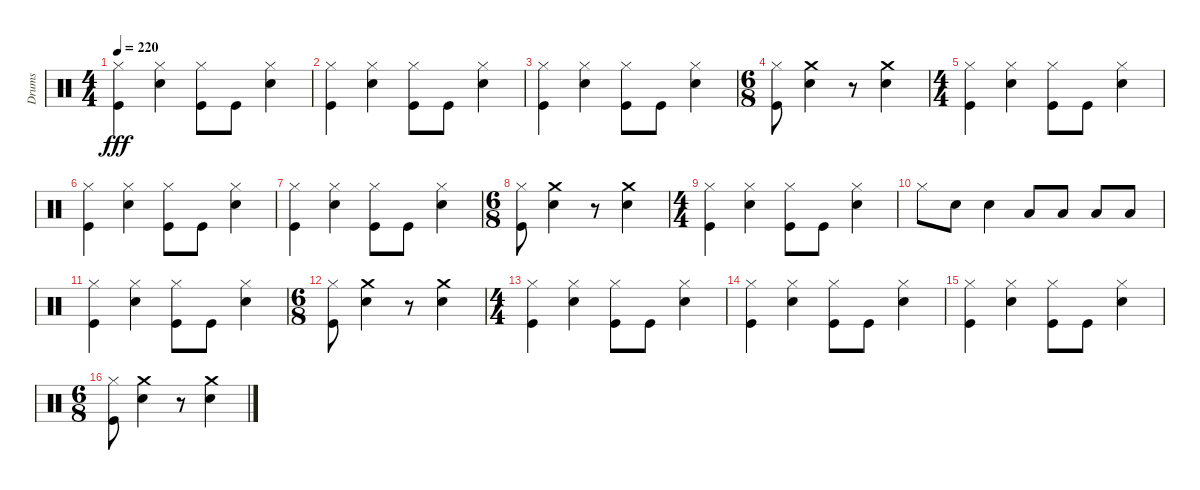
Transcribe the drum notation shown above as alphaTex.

\track ("Drums" "Drums") {instrument percussion}
\staff {score}
\articulation defaults
\ts (4 4)
\tempo 220
\clef neutral
\ks c
("Kick (hit)" "Hi-Hat (closed)").4{dy fff} ("Hi-Hat (closed)" "Snare (hit) 2").4 ("Kick (hit)" "Hi-Hat (closed)").8 "Kick (hit)".8 ("Snare (hit) 2" "Hi-Hat (closed)").4 |
("Kick (hit)" "Hi-Hat (closed)").4 ("Snare (hit) 2" "Hi-Hat (closed)").4 ("Kick (hit)" "Hi-Hat (closed)").8 "Kick (hit)".8 ("Snare (hit) 2" "Hi-Hat (closed)").4 |
("Kick (hit)" "Hi-Hat (closed)").4 ("Snare (hit) 2" "Hi-Hat (closed)").4 ("Kick (hit)" "Hi-Hat (closed)").8 "Kick (hit)".8 ("Snare (hit) 2" "Hi-Hat (closed)").4 |
\ts (6 8)
("Hi-Hat (closed)" "Kick (hit)").8 ("Snare (hit) 2" "Crash medium (hit)").4 r.8 ("Snare (hit) 2" "Crash medium (hit)").4 |
\ts (4 4)
("Kick (hit)" "Hi-Hat (closed)").4 ("Snare (hit) 2" "Hi-Hat (closed)").4 ("Kick (hit)" "Hi-Hat (closed)").8 "Kick (hit)".8 ("Snare (hit) 2" "Hi-Hat (closed)").4 |
("Hi-Hat (closed)" "Kick (hit)").4 ("Snare (hit) 2" "Hi-Hat (closed)").4 ("Kick (hit)" "Hi-Hat (closed)").8 "Kick (hit)".8 ("Snare (hit) 2" "Hi-Hat (closed)").4 |
("Kick (hit)" "Hi-Hat (closed)").4 ("Snare (hit) 2" "Hi-Hat (closed)").4 ("Hi-Hat (closed)" "Kick (hit)").8 "Kick (hit)".8 ("Snare (hit) 2" "Hi-Hat (closed)").4 |
\ts (6 8)
("Hi-Hat (closed)" "Kick (hit)").8 ("Snare (hit) 2" "Crash medium (hit)").4 r.8 ("Snare (hit) 2" "Crash medium (hit)").4 |
\ts (4 4)
("Kick (hit)" "Hi-Hat (closed)").4 ("Snare (hit) 2" "Hi-Hat (closed)").4 ("Kick (hit)" "Hi-Hat (closed)").8 "Kick (hit)".8 ("Snare (hit) 2" "Hi-Hat (closed)").4 |
"Hi-Hat (closed)".8 "Snare (hit) 2".8 "Snare (hit) 2".4 "Low Tom (hit)".8 "Low Tom (hit)".8 "Low Tom (hit)".8 "Low Tom (hit)".8 |
("Kick (hit)" "Hi-Hat (closed)").4 ("Hi-Hat (closed)" "Snare (hit) 2").4 ("Kick (hit)" "Hi-Hat (closed)").8 "Kick (hit)".8 ("Snare (hit) 2" "Hi-Hat (closed)").4 |
\ts (6 8)
("Hi-Hat (closed)" "Kick (hit)").8 ("Snare (hit) 2" "Crash medium (hit)").4 r.8 ("Snare (hit) 2" "Crash medium (hit)").4 |
\ts (4 4)
("Hi-Hat (closed)" "Kick (hit)").4 ("Snare (hit) 2" "Hi-Hat (closed)").4 ("Kick (hit)" "Hi-Hat (closed)").8 "Kick (hit)".8 ("Snare (hit) 2" "Hi-Hat (closed)").4 |
("Kick (hit)" "Hi-Hat (closed)").4 ("Snare (hit) 2" "Hi-Hat (closed)").4 ("Hi-Hat (closed)" "Kick (hit)").8 "Kick (hit)".8 ("Snare (hit) 2" "Hi-Hat (closed)").4 |
("Kick (hit)" "Hi-Hat (closed)").4 ("Snare (hit) 2" "Hi-Hat (closed)").4 ("Kick (hit)" "Hi-Hat (closed)").8 "Kick (hit)".8 ("Hi-Hat (closed)" "Snare (hit) 2").4 |
\ts (6 8)
("Hi-Hat (closed)" "Kick (hit)").8 ("Snare (hit) 2" "Crash medium (hit)").4 r.8 ("Snare (hit) 2" "Crash medium (hit)").4
